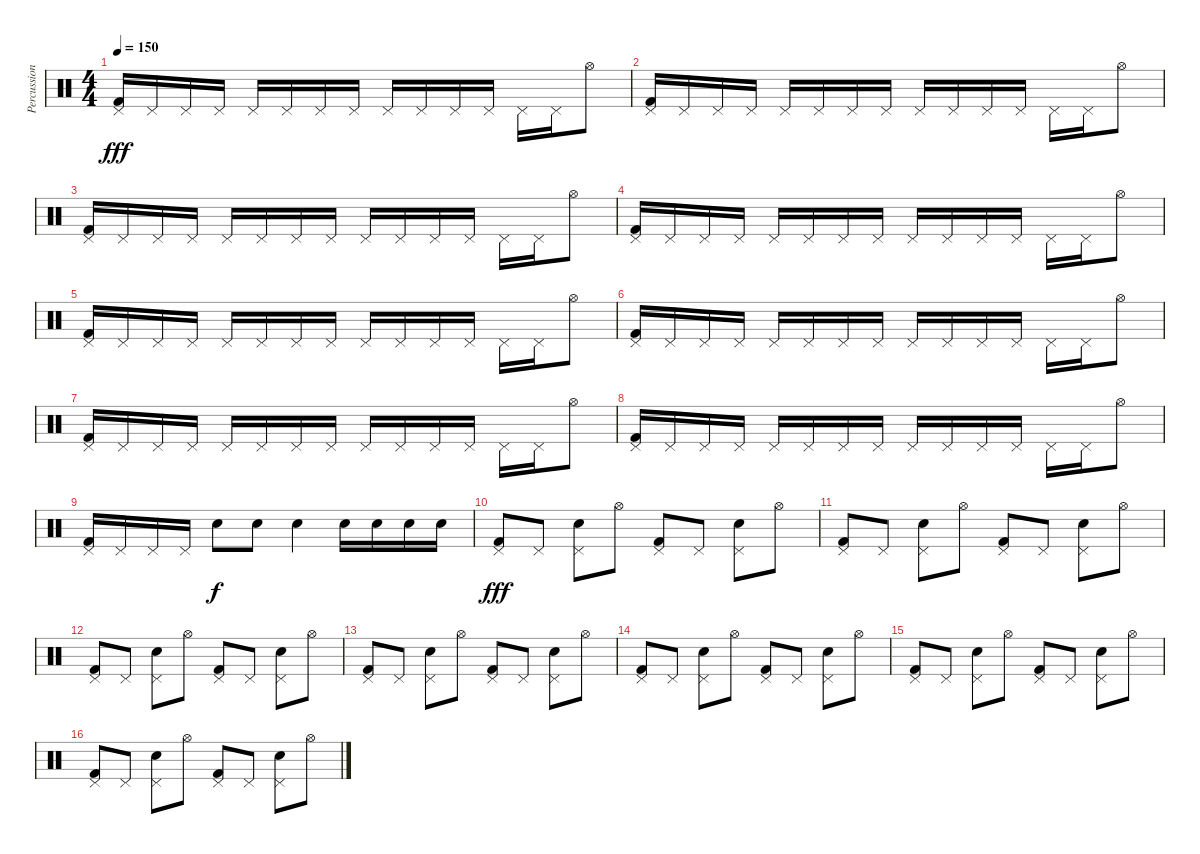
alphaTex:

\track ("Percussions" "Percussion") {instrument percussion}
\staff {score}
\articulation defaults
\ts (4 4)
\tempo 150
\clef neutral
\ks c
("Pedal Hi-Hat (hit)" "Kick (hit) 2").16{dy fff} "Pedal Hi-Hat (hit)".16 "Pedal Hi-Hat (hit)".16 "Pedal Hi-Hat (hit)".16 "Pedal Hi-Hat (hit)".16 "Pedal Hi-Hat (hit)".16 "Pedal Hi-Hat (hit)".16 "Pedal Hi-Hat (hit)".16 "Pedal Hi-Hat (hit)".16 "Pedal Hi-Hat (hit)".16 "Pedal Hi-Hat (hit)".16 "Pedal Hi-Hat (hit)".16 "Pedal Hi-Hat (hit)".16 "Pedal Hi-Hat (hit)".16 "Hi-Hat (open)".8 |
("Pedal Hi-Hat (hit)" "Kick (hit) 2").16 "Pedal Hi-Hat (hit)".16 "Pedal Hi-Hat (hit)".16 "Pedal Hi-Hat (hit)".16 "Pedal Hi-Hat (hit)".16 "Pedal Hi-Hat (hit)".16 "Pedal Hi-Hat (hit)".16 "Pedal Hi-Hat (hit)".16 "Pedal Hi-Hat (hit)".16 "Pedal Hi-Hat (hit)".16 "Pedal Hi-Hat (hit)".16 "Pedal Hi-Hat (hit)".16 "Pedal Hi-Hat (hit)".16 "Pedal Hi-Hat (hit)".16 "Hi-Hat (open)".8 |
("Pedal Hi-Hat (hit)" "Kick (hit) 2").16 "Pedal Hi-Hat (hit)".16 "Pedal Hi-Hat (hit)".16 "Pedal Hi-Hat (hit)".16 "Pedal Hi-Hat (hit)".16 "Pedal Hi-Hat (hit)".16 "Pedal Hi-Hat (hit)".16 "Pedal Hi-Hat (hit)".16 "Pedal Hi-Hat (hit)".16 "Pedal Hi-Hat (hit)".16 "Pedal Hi-Hat (hit)".16 "Pedal Hi-Hat (hit)".16 "Pedal Hi-Hat (hit)".16 "Pedal Hi-Hat (hit)".16 "Hi-Hat (open)".8 |
("Pedal Hi-Hat (hit)" "Kick (hit) 2").16 "Pedal Hi-Hat (hit)".16 "Pedal Hi-Hat (hit)".16 "Pedal Hi-Hat (hit)".16 "Pedal Hi-Hat (hit)".16 "Pedal Hi-Hat (hit)".16 "Pedal Hi-Hat (hit)".16 "Pedal Hi-Hat (hit)".16 "Pedal Hi-Hat (hit)".16 "Pedal Hi-Hat (hit)".16 "Pedal Hi-Hat (hit)".16 "Pedal Hi-Hat (hit)".16 "Pedal Hi-Hat (hit)".16 "Pedal Hi-Hat (hit)".16 "Hi-Hat (open)".8 |
("Pedal Hi-Hat (hit)" "Kick (hit) 2").16 "Pedal Hi-Hat (hit)".16 "Pedal Hi-Hat (hit)".16 "Pedal Hi-Hat (hit)".16 "Pedal Hi-Hat (hit)".16 "Pedal Hi-Hat (hit)".16 "Pedal Hi-Hat (hit)".16 "Pedal Hi-Hat (hit)".16 "Pedal Hi-Hat (hit)".16 "Pedal Hi-Hat (hit)".16 "Pedal Hi-Hat (hit)".16 "Pedal Hi-Hat (hit)".16 "Pedal Hi-Hat (hit)".16 "Pedal Hi-Hat (hit)".16 "Hi-Hat (open)".8 |
("Pedal Hi-Hat (hit)" "Kick (hit) 2").16 "Pedal Hi-Hat (hit)".16 "Pedal Hi-Hat (hit)".16 "Pedal Hi-Hat (hit)".16 "Pedal Hi-Hat (hit)".16 "Pedal Hi-Hat (hit)".16 "Pedal Hi-Hat (hit)".16 "Pedal Hi-Hat (hit)".16 "Pedal Hi-Hat (hit)".16 "Pedal Hi-Hat (hit)".16 "Pedal Hi-Hat (hit)".16 "Pedal Hi-Hat (hit)".16 "Pedal Hi-Hat (hit)".16 "Pedal Hi-Hat (hit)".16 "Hi-Hat (open)".8 |
("Pedal Hi-Hat (hit)" "Kick (hit) 2").16 "Pedal Hi-Hat (hit)".16 "Pedal Hi-Hat (hit)".16 "Pedal Hi-Hat (hit)".16 "Pedal Hi-Hat (hit)".16 "Pedal Hi-Hat (hit)".16 "Pedal Hi-Hat (hit)".16 "Pedal Hi-Hat (hit)".16 "Pedal Hi-Hat (hit)".16 "Pedal Hi-Hat (hit)".16 "Pedal Hi-Hat (hit)".16 "Pedal Hi-Hat (hit)".16 "Pedal Hi-Hat (hit)".16 "Pedal Hi-Hat (hit)".16 "Hi-Hat (open)".8 |
("Pedal Hi-Hat (hit)" "Kick (hit) 2").16 "Pedal Hi-Hat (hit)".16 "Pedal Hi-Hat (hit)".16 "Pedal Hi-Hat (hit)".16 "Pedal Hi-Hat (hit)".16 "Pedal Hi-Hat (hit)".16 "Pedal Hi-Hat (hit)".16 "Pedal Hi-Hat (hit)".16 "Pedal Hi-Hat (hit)".16 "Pedal Hi-Hat (hit)".16 "Pedal Hi-Hat (hit)".16 "Pedal Hi-Hat (hit)".16 "Pedal Hi-Hat (hit)".16 "Pedal Hi-Hat (hit)".16 "Hi-Hat (open)".8 |
("Pedal Hi-Hat (hit)" "Kick (hit) 2").16 "Pedal Hi-Hat (hit)".16 "Pedal Hi-Hat (hit)".16 "Pedal Hi-Hat (hit)".16 "Electric Snare (hit)".8{dy f} "Electric Snare (hit)".8 "Electric Snare (hit)".4 "Electric Snare (hit)".16 "Electric Snare (hit)".16 "Electric Snare (hit)".16 "Electric Snare (hit)".16 |
("Pedal Hi-Hat (hit)" "Kick (hit) 2").8{dy fff} "Pedal Hi-Hat (hit)".8 ("Pedal Hi-Hat (hit)" "Electric Snare (hit)").8 "Hi-Hat (open)".8 ("Pedal Hi-Hat (hit)" "Kick (hit) 2").8 "Pedal Hi-Hat (hit)".8 ("Pedal Hi-Hat (hit)" "Electric Snare (hit)").8 "Hi-Hat (open)".8 |
("Pedal Hi-Hat (hit)" "Kick (hit) 2").8 "Pedal Hi-Hat (hit)".8 ("Pedal Hi-Hat (hit)" "Electric Snare (hit)").8 "Hi-Hat (open)".8 ("Pedal Hi-Hat (hit)" "Kick (hit) 2").8 "Pedal Hi-Hat (hit)".8 ("Pedal Hi-Hat (hit)" "Electric Snare (hit)").8 "Hi-Hat (open)".8 |
("Pedal Hi-Hat (hit)" "Kick (hit) 2").8 "Pedal Hi-Hat (hit)".8 ("Pedal Hi-Hat (hit)" "Electric Snare (hit)").8 "Hi-Hat (open)".8 ("Pedal Hi-Hat (hit)" "Kick (hit) 2").8 "Pedal Hi-Hat (hit)".8 ("Pedal Hi-Hat (hit)" "Electric Snare (hit)").8 "Hi-Hat (open)".8 |
("Pedal Hi-Hat (hit)" "Kick (hit) 2").8 "Pedal Hi-Hat (hit)".8 ("Pedal Hi-Hat (hit)" "Electric Snare (hit)").8 "Hi-Hat (open)".8 ("Pedal Hi-Hat (hit)" "Kick (hit) 2").8 "Pedal Hi-Hat (hit)".8 ("Pedal Hi-Hat (hit)" "Electric Snare (hit)").8 "Hi-Hat (open)".8 |
("Pedal Hi-Hat (hit)" "Kick (hit) 2").8 "Pedal Hi-Hat (hit)".8 ("Pedal Hi-Hat (hit)" "Electric Snare (hit)").8 "Hi-Hat (open)".8 ("Pedal Hi-Hat (hit)" "Kick (hit) 2").8 "Pedal Hi-Hat (hit)".8 ("Pedal Hi-Hat (hit)" "Electric Snare (hit)").8 "Hi-Hat (open)".8 |
("Pedal Hi-Hat (hit)" "Kick (hit) 2").8 "Pedal Hi-Hat (hit)".8 ("Pedal Hi-Hat (hit)" "Electric Snare (hit)").8 "Hi-Hat (open)".8 ("Pedal Hi-Hat (hit)" "Kick (hit) 2").8 "Pedal Hi-Hat (hit)".8 ("Pedal Hi-Hat (hit)" "Electric Snare (hit)").8 "Hi-Hat (open)".8 |
("Pedal Hi-Hat (hit)" "Kick (hit) 2").8 "Pedal Hi-Hat (hit)".8 ("Pedal Hi-Hat (hit)" "Electric Snare (hit)").8 "Hi-Hat (open)".8 ("Pedal Hi-Hat (hit)" "Kick (hit) 2").8 "Pedal Hi-Hat (hit)".8 ("Pedal Hi-Hat (hit)" "Electric Snare (hit)").8 "Hi-Hat (open)".8
